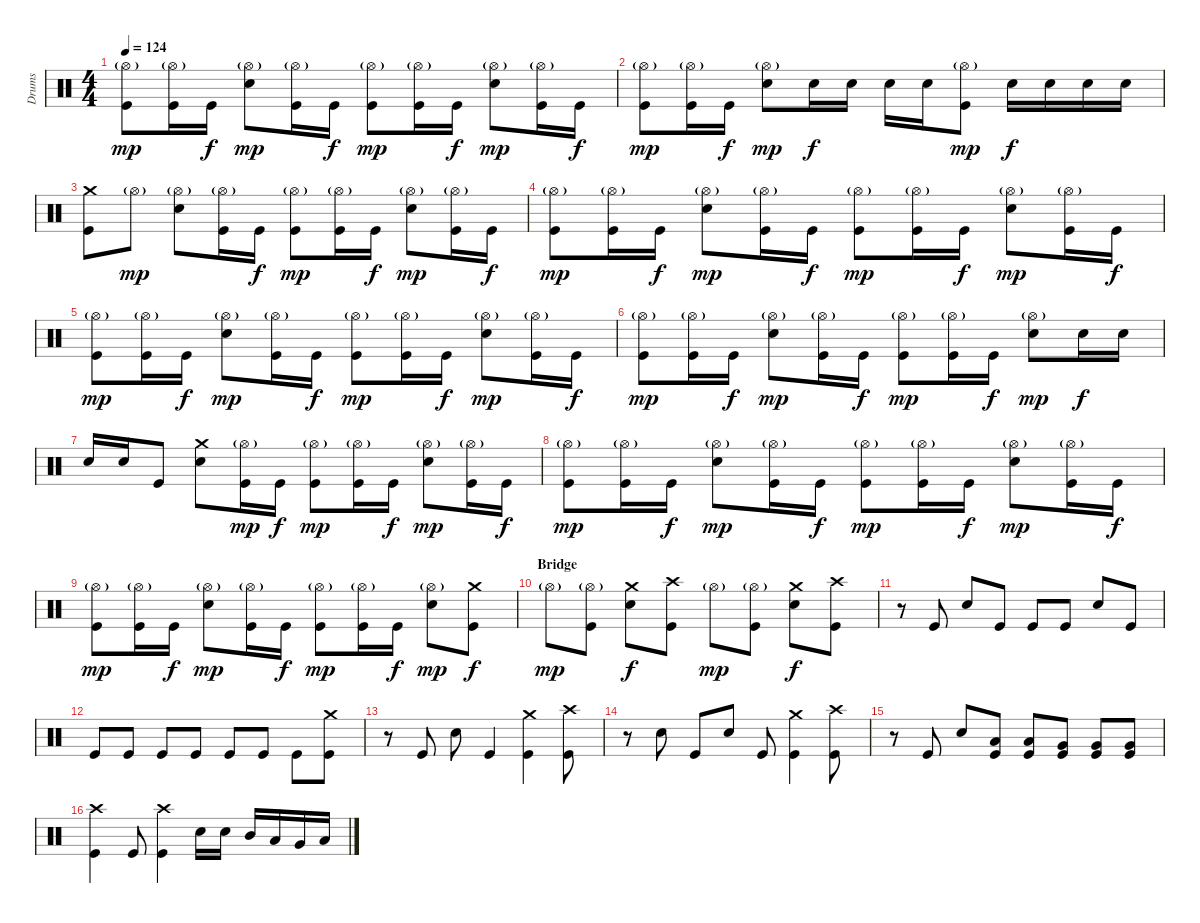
\track ("Drums" "Drums") {instrument percussion}
\staff {score}
\articulation defaults
\ts (4 4)
\tempo 124
\clef neutral
\ks c
("Hi-Hat (open)"{g} "Kick (hit)").8{dy mp} ("Hi-Hat (open)"{g} "Kick (hit)").16 "Kick (hit)".16{dy f} ("Hi-Hat (open)"{g} "Snare (hit) 2").8{dy mp} ("Hi-Hat (open)"{g} "Kick (hit)").16 "Kick (hit)".16{dy f} ("Hi-Hat (open)"{g} "Kick (hit)").8{dy mp} ("Hi-Hat (open)"{g} "Kick (hit)").16 "Kick (hit)".16{dy f} ("Hi-Hat (open)"{g} "Snare (hit) 2").8{dy mp} ("Hi-Hat (open)"{g} "Kick (hit)").16 "Kick (hit)".16{dy f} |
("Hi-Hat (open)"{g} "Kick (hit)").8{dy mp} ("Hi-Hat (open)"{g} "Kick (hit)").16 "Kick (hit)".16{dy f} ("Hi-Hat (open)"{g} "Snare (hit) 2").8{dy mp} "Snare (hit) 2".16{dy f} "Snare (hit) 2".16 "Snare (hit) 2".16 "Snare (hit) 2".16 ("Hi-Hat (open)"{g} "Kick (hit)").8{dy mp} "Snare (hit) 2".16{dy f} "Snare (hit) 2".16 "Snare (hit) 2".16 "Snare (hit) 2".16 |
("Crash medium (hit)" "Kick (hit)").8 "Hi-Hat (open)"{g}.8{dy mp} ("Hi-Hat (open)"{g} "Snare (hit) 2").8 ("Hi-Hat (open)"{g} "Kick (hit)").16 "Kick (hit)".16{dy f} ("Hi-Hat (open)"{g} "Kick (hit)").8{dy mp} ("Hi-Hat (open)"{g} "Kick (hit)").16 "Kick (hit)".16{dy f} ("Hi-Hat (open)"{g} "Snare (hit) 2").8{dy mp} ("Hi-Hat (open)"{g} "Kick (hit)").16 "Kick (hit)".16{dy f} |
("Hi-Hat (open)"{g} "Kick (hit)").8{dy mp} ("Hi-Hat (open)"{g} "Kick (hit)").16 "Kick (hit)".16{dy f} ("Hi-Hat (open)"{g} "Snare (hit) 2").8{dy mp} ("Hi-Hat (open)"{g} "Kick (hit)").16 "Kick (hit)".16{dy f} ("Hi-Hat (open)"{g} "Kick (hit)").8{dy mp} ("Hi-Hat (open)"{g} "Kick (hit)").16 "Kick (hit)".16{dy f} ("Hi-Hat (open)"{g} "Snare (hit) 2").8{dy mp} ("Hi-Hat (open)"{g} "Kick (hit)").16 "Kick (hit)".16{dy f} |
("Hi-Hat (open)"{g} "Kick (hit)").8{dy mp} ("Hi-Hat (open)"{g} "Kick (hit)").16 "Kick (hit)".16{dy f} ("Hi-Hat (open)"{g} "Snare (hit) 2").8{dy mp} ("Hi-Hat (open)"{g} "Kick (hit)").16 "Kick (hit)".16{dy f} ("Hi-Hat (open)"{g} "Kick (hit)").8{dy mp} ("Hi-Hat (open)"{g} "Kick (hit)").16 "Kick (hit)".16{dy f} ("Hi-Hat (open)"{g} "Snare (hit) 2").8{dy mp} ("Hi-Hat (open)"{g} "Kick (hit)").16 "Kick (hit)".16{dy f} |
("Hi-Hat (open)"{g} "Kick (hit)").8{dy mp} ("Hi-Hat (open)"{g} "Kick (hit)").16 "Kick (hit)".16{dy f} ("Hi-Hat (open)"{g} "Snare (hit) 2").8{dy mp} ("Hi-Hat (open)"{g} "Kick (hit)").16 "Kick (hit)".16{dy f} ("Hi-Hat (open)"{g} "Kick (hit)").8{dy mp} ("Hi-Hat (open)"{g} "Kick (hit)").16 "Kick (hit)".16{dy f} ("Hi-Hat (open)"{g} "Snare (hit) 2").8{dy mp} "Snare (hit) 2".16{dy f} "Snare (hit) 2".16 |
"Snare (hit) 2".16 "Snare (hit) 2".16 "Kick (hit)".8 ("Crash medium (hit)" "Snare (hit) 2").8 ("Hi-Hat (open)"{g} "Kick (hit)").16{dy mp} "Kick (hit)".16{dy f} ("Hi-Hat (open)"{g} "Kick (hit)").8{dy mp} ("Hi-Hat (open)"{g} "Kick (hit)").16 "Kick (hit)".16{dy f} ("Hi-Hat (open)"{g} "Snare (hit) 2").8{dy mp} ("Hi-Hat (open)"{g} "Kick (hit)").16 "Kick (hit)".16{dy f} |
("Hi-Hat (open)"{g} "Kick (hit)").8{dy mp} ("Hi-Hat (open)"{g} "Kick (hit)").16 "Kick (hit)".16{dy f} ("Hi-Hat (open)"{g} "Snare (hit) 2").8{dy mp} ("Hi-Hat (open)"{g} "Kick (hit)").16 "Kick (hit)".16{dy f} ("Hi-Hat (open)"{g} "Kick (hit)").8{dy mp} ("Hi-Hat (open)"{g} "Kick (hit)").16 "Kick (hit)".16{dy f} ("Hi-Hat (open)"{g} "Snare (hit) 2").8{dy mp} ("Hi-Hat (open)"{g} "Kick (hit)").16 "Kick (hit)".16{dy f} |
("Hi-Hat (open)"{g} "Kick (hit)").8{dy mp} ("Hi-Hat (open)"{g} "Kick (hit)").16 "Kick (hit)".16{dy f} ("Hi-Hat (open)"{g} "Snare (hit) 2").8{dy mp} ("Hi-Hat (open)"{g} "Kick (hit)").16 "Kick (hit)".16{dy f} ("Hi-Hat (open)"{g} "Kick (hit)").8{dy mp} ("Hi-Hat (open)"{g} "Kick (hit)").16 "Kick (hit)".16{dy f} ("Hi-Hat (open)"{g} "Snare (hit) 2").8{dy mp} ("Crash medium (hit)" "Kick (hit)").8{dy f} |
\section ("" "Bridge")
"Hi-Hat (open)"{g}.8{dy mp} ("Hi-Hat (open)"{g} "Kick (hit)").8 ("Crash medium (hit)" "Snare (hit) 2").8{dy f} ("Crash high (hit)" "Kick (hit)").8 "Hi-Hat (open)"{g}.8{dy mp} ("Hi-Hat (open)"{g} "Kick (hit)").8 ("Crash medium (hit)" "Snare (hit) 2").8{dy f} ("Crash high (hit)" "Kick (hit)").8 |
r.8 "Kick (hit)".8 "Snare (hit) 2".8 "Kick (hit)".8 "Kick (hit)".8 "Kick (hit)".8 "Snare (hit) 2".8 "Kick (hit)".8 |
"Kick (hit)".8 "Kick (hit)".8 "Kick (hit)".8 "Kick (hit)".8 "Kick (hit)".8 "Kick (hit)".8 "Kick (hit)".8 ("Crash medium (hit)" "Kick (hit)").8 |
r.8 "Kick (hit)".8 "Snare (hit) 2".8 "Kick (hit)".4 ("Crash medium (hit)" "Kick (hit)").4 ("Crash high (hit)" "Kick (hit)").8 |
r.8 "Snare (hit) 2".8 "Kick (hit)".8 "Snare (hit) 2".8 "Kick (hit)".8 ("Crash medium (hit)" "Kick (hit)").4 ("Crash high (hit)" "Kick (hit)").8 |
r.8 "Kick (hit)".8 "Snare (hit) 2".8 ("Low Floor Tom (hit)" "Kick (hit)").8 ("Low Floor Tom (hit)" "Kick (hit)").8 ("Very Low Tom (hit)" "Kick (hit)").8 ("Very Low Tom (hit)" "Kick (hit)").8 ("Very Low Tom (hit)" "Kick (hit)").8 |
("Crash high (hit)" "Kick (hit)").4 "Kick (hit)".8 ("Crash high (hit)" "Kick (hit)").4 "Snare (hit) 2".16 "Snare (hit) 2".16 "Mid Tom (hit)".16 "Low Tom (hit)".16 "Very Low Tom (hit)".16 "Low Floor Tom (hit)".16
